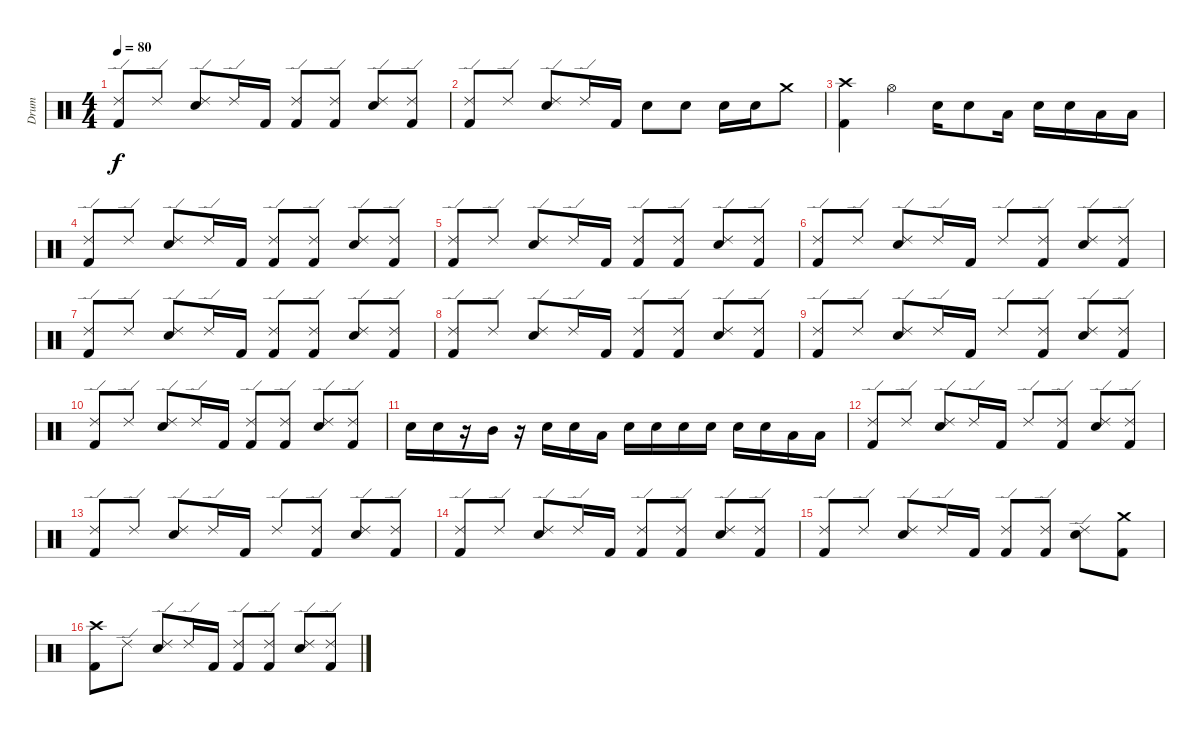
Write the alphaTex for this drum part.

\track ("Drum" "Drum") {instrument percussion}
\staff {score}
\articulation defaults
\ts (4 4)
\tempo 80
\clef neutral
\ks c
("Ride (edge) 2" "Kick (hit) 2").8{dy f} "Ride (edge) 2".8 ("Ride (edge) 2" "Electric Snare (hit)").8 "Ride (edge) 2".16 "Kick (hit) 2".16 ("Ride (edge) 2" "Kick (hit) 2").8 ("Ride (edge) 2" "Kick (hit) 2").8 ("Ride (edge) 2" "Electric Snare (hit)").8 ("Ride (edge) 2" "Kick (hit) 2").8 |
("Ride (edge) 2" "Kick (hit) 2").8 "Ride (edge) 2".8 ("Ride (edge) 2" "Electric Snare (hit)").8 "Ride (edge) 2".16 "Kick (hit) 2".16 "Electric Snare (hit)".8 "Electric Snare (hit)".8 "Electric Snare (hit)".16 "Electric Snare (hit)".16 "Crash medium (hit)".8 |
("Crash high (hit)" "Kick (hit) 2").4 "Hi-Hat (open)".4 "Electric Snare (hit)".16 "Electric Snare (hit)".8 "Low Tom (hit)".16 "Electric Snare (hit)".16 "Electric Snare (hit)".16 "Low Tom (hit)".16 "Low Tom (hit)".16 |
("Ride (edge) 2" "Kick (hit) 2").8 "Ride (edge) 2".8 ("Ride (edge) 2" "Electric Snare (hit)").8 "Ride (edge) 2".16 "Kick (hit) 2".16 ("Ride (edge) 2" "Kick (hit) 2").8 ("Ride (edge) 2" "Kick (hit) 2").8 ("Ride (edge) 2" "Electric Snare (hit)").8 ("Ride (edge) 2" "Kick (hit) 2").8 |
("Ride (edge) 2" "Kick (hit) 2").8 "Ride (edge) 2".8 ("Ride (edge) 2" "Electric Snare (hit)").8 "Ride (edge) 2".16 "Kick (hit) 2".16 ("Ride (edge) 2" "Kick (hit) 2").8 ("Ride (edge) 2" "Kick (hit) 2").8 ("Ride (edge) 2" "Electric Snare (hit)").8 ("Ride (edge) 2" "Kick (hit) 2").8 |
("Ride (edge) 2" "Kick (hit) 2").8 "Ride (edge) 2".8 ("Ride (edge) 2" "Electric Snare (hit)").8 "Ride (edge) 2".16 "Kick (hit) 2".16 "Ride (edge) 2".8 ("Ride (edge) 2" "Kick (hit) 2").8 ("Ride (edge) 2" "Electric Snare (hit)").8 ("Ride (edge) 2" "Kick (hit) 2").8 |
("Ride (edge) 2" "Kick (hit) 2").8 "Ride (edge) 2".8 ("Ride (edge) 2" "Electric Snare (hit)").8 "Ride (edge) 2".16 "Kick (hit) 2".16 ("Ride (edge) 2" "Kick (hit) 2").8 ("Ride (edge) 2" "Kick (hit) 2").8 ("Ride (edge) 2" "Electric Snare (hit)").8 ("Ride (edge) 2" "Kick (hit) 2").8 |
("Ride (edge) 2" "Kick (hit) 2").8 "Ride (edge) 2".8 ("Ride (edge) 2" "Electric Snare (hit)").8 "Ride (edge) 2".16 "Kick (hit) 2".16 ("Ride (edge) 2" "Kick (hit) 2").8 ("Ride (edge) 2" "Kick (hit) 2").8 ("Ride (edge) 2" "Electric Snare (hit)").8 ("Ride (edge) 2" "Kick (hit) 2").8 |
("Ride (edge) 2" "Kick (hit) 2").8 "Ride (edge) 2".8 ("Ride (edge) 2" "Electric Snare (hit)").8 "Ride (edge) 2".16 "Kick (hit) 2".16 "Ride (edge) 2".8 ("Ride (edge) 2" "Kick (hit) 2").8 ("Ride (edge) 2" "Electric Snare (hit)").8 ("Ride (edge) 2" "Kick (hit) 2").8 |
("Ride (edge) 2" "Kick (hit) 2").8 "Ride (edge) 2".8 ("Ride (edge) 2" "Electric Snare (hit)").8 "Ride (edge) 2".16 "Kick (hit) 2".16 ("Ride (edge) 2" "Kick (hit) 2").8 ("Ride (edge) 2" "Kick (hit) 2").8 ("Ride (edge) 2" "Electric Snare (hit)").8 ("Ride (edge) 2" "Kick (hit) 2").8 |
"Electric Snare (hit)".16 "Electric Snare (hit)".16 r.16 "Mid Tom (hit)".16 r.16 "Electric Snare (hit)".16 "Electric Snare (hit)".16 "Low Tom (hit)".16 "Electric Snare (hit)".16 "Electric Snare (hit)".16 "Electric Snare (hit)".16 "Electric Snare (hit)".16 "Electric Snare (hit)".16 "Electric Snare (hit)".16 "Low Tom (hit)".16 "Low Tom (hit)".16 |
("Ride (edge) 2" "Kick (hit) 2").8 "Ride (edge) 2".8 ("Ride (edge) 2" "Electric Snare (hit)").8 "Ride (edge) 2".16 "Kick (hit) 2".16 "Ride (edge) 2".8 ("Ride (edge) 2" "Kick (hit) 2").8 ("Ride (edge) 2" "Electric Snare (hit)").8 ("Ride (edge) 2" "Kick (hit) 2").8 |
("Ride (edge) 2" "Kick (hit) 2").8 "Ride (edge) 2".8 ("Ride (edge) 2" "Electric Snare (hit)").8 "Ride (edge) 2".16 "Kick (hit) 2".16 "Ride (edge) 2".8 ("Ride (edge) 2" "Kick (hit) 2").8 ("Ride (edge) 2" "Electric Snare (hit)").8 ("Ride (edge) 2" "Kick (hit) 2").8 |
("Ride (edge) 2" "Kick (hit) 2").8 "Ride (edge) 2".8 ("Ride (edge) 2" "Electric Snare (hit)").8 "Ride (edge) 2".16 "Kick (hit) 2".16 ("Ride (edge) 2" "Kick (hit) 2").8 ("Ride (edge) 2" "Kick (hit) 2").8 ("Ride (edge) 2" "Electric Snare (hit)").8 ("Ride (edge) 2" "Kick (hit) 2").8 |
("Ride (edge) 2" "Kick (hit) 2").8 "Ride (edge) 2".8 ("Ride (edge) 2" "Electric Snare (hit)").8 "Ride (edge) 2".16 "Kick (hit) 2".16 ("Ride (edge) 2" "Kick (hit) 2").8 ("Ride (edge) 2" "Kick (hit) 2").8 ("Ride (edge) 2" "Electric Snare (hit)").8 ("Crash medium (hit)" "Kick (hit) 2").8 |
("Crash high (hit)" "Kick (hit) 2").8 "Ride (edge) 2".8 ("Ride (edge) 2" "Electric Snare (hit)").8 "Ride (edge) 2".16 "Kick (hit) 2".16 ("Ride (edge) 2" "Kick (hit) 2").8 ("Ride (edge) 2" "Kick (hit) 2").8 ("Ride (edge) 2" "Electric Snare (hit)").8 ("Ride (edge) 2" "Kick (hit) 2").8
